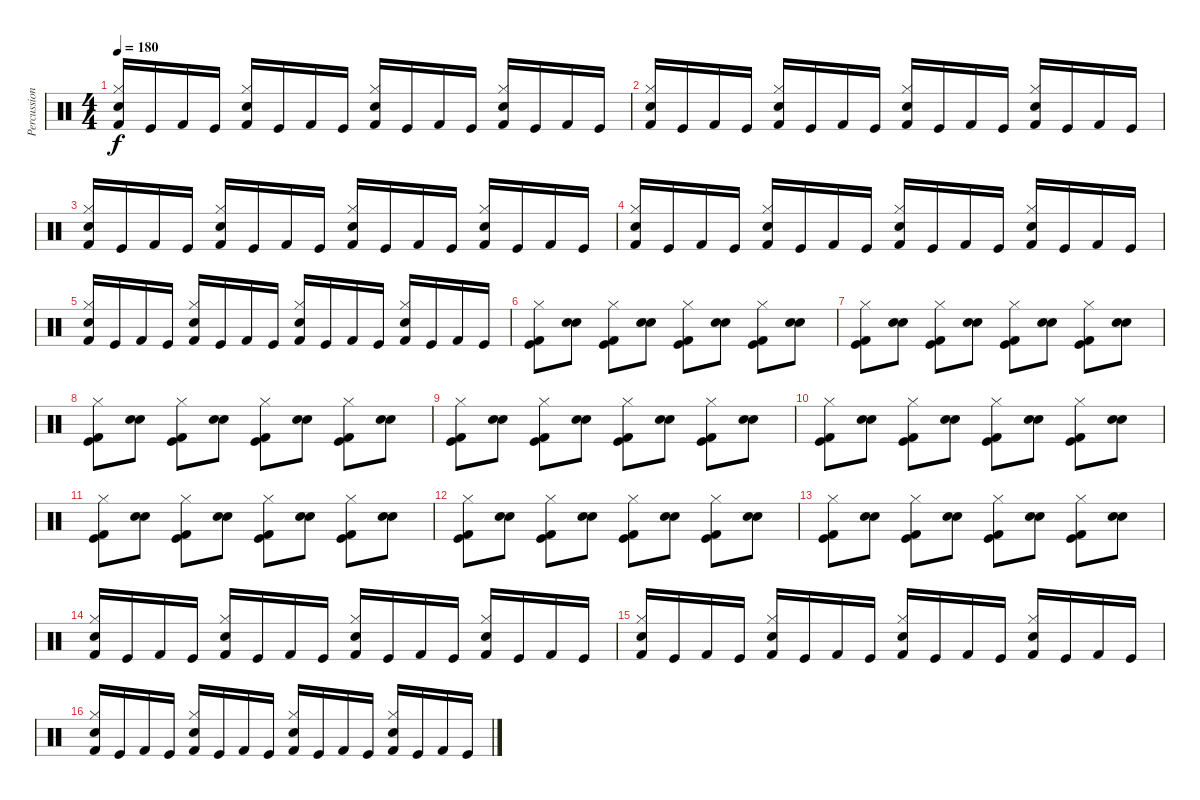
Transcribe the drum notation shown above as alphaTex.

\track ("Percussion" "Percussion") {instrument percussion}
\staff {score}
\articulation defaults
\ts (4 4)
\tempo 180
\clef neutral
\ks c
("Electric Snare (hit)" "Hi-Hat (closed)" "Kick (hit) 2").16{dy f} "Kick (hit)".16 "Kick (hit) 2".16 "Kick (hit)".16 ("Hi-Hat (closed)" "Electric Snare (hit)" "Kick (hit) 2").16 "Kick (hit)".16 "Kick (hit) 2".16 "Kick (hit)".16 ("Hi-Hat (closed)" "Electric Snare (hit)" "Kick (hit) 2").16 "Kick (hit)".16 "Kick (hit) 2".16 "Kick (hit)".16 ("Hi-Hat (closed)" "Electric Snare (hit)" "Kick (hit) 2").16 "Kick (hit)".16 "Kick (hit) 2".16 "Kick (hit)".16 |
("Electric Snare (hit)" "Hi-Hat (closed)" "Kick (hit) 2").16 "Kick (hit)".16 "Kick (hit) 2".16 "Kick (hit)".16 ("Hi-Hat (closed)" "Electric Snare (hit)" "Kick (hit) 2").16 "Kick (hit)".16 "Kick (hit) 2".16 "Kick (hit)".16 ("Hi-Hat (closed)" "Electric Snare (hit)" "Kick (hit) 2").16 "Kick (hit)".16 "Kick (hit) 2".16 "Kick (hit)".16 ("Hi-Hat (closed)" "Electric Snare (hit)" "Kick (hit) 2").16 "Kick (hit)".16 "Kick (hit) 2".16 "Kick (hit)".16 |
("Electric Snare (hit)" "Hi-Hat (closed)" "Kick (hit) 2").16 "Kick (hit)".16 "Kick (hit) 2".16 "Kick (hit)".16 ("Hi-Hat (closed)" "Electric Snare (hit)" "Kick (hit) 2").16 "Kick (hit)".16 "Kick (hit) 2".16 "Kick (hit)".16 ("Hi-Hat (closed)" "Electric Snare (hit)" "Kick (hit) 2").16 "Kick (hit)".16 "Kick (hit) 2".16 "Kick (hit)".16 ("Hi-Hat (closed)" "Electric Snare (hit)" "Kick (hit) 2").16 "Kick (hit)".16 "Kick (hit) 2".16 "Kick (hit)".16 |
("Electric Snare (hit)" "Hi-Hat (closed)" "Kick (hit) 2").16 "Kick (hit)".16 "Kick (hit) 2".16 "Kick (hit)".16 ("Hi-Hat (closed)" "Electric Snare (hit)" "Kick (hit) 2").16 "Kick (hit)".16 "Kick (hit) 2".16 "Kick (hit)".16 ("Hi-Hat (closed)" "Electric Snare (hit)" "Kick (hit) 2").16 "Kick (hit)".16 "Kick (hit) 2".16 "Kick (hit)".16 ("Hi-Hat (closed)" "Electric Snare (hit)" "Kick (hit) 2").16 "Kick (hit)".16 "Kick (hit) 2".16 "Kick (hit)".16 |
("Electric Snare (hit)" "Hi-Hat (closed)" "Kick (hit) 2").16 "Kick (hit)".16 "Kick (hit) 2".16 "Kick (hit)".16 ("Hi-Hat (closed)" "Electric Snare (hit)" "Kick (hit) 2").16 "Kick (hit)".16 "Kick (hit) 2".16 "Kick (hit)".16 ("Hi-Hat (closed)" "Electric Snare (hit)" "Kick (hit) 2").16 "Kick (hit)".16 "Kick (hit) 2".16 "Kick (hit)".16 ("Hi-Hat (closed)" "Electric Snare (hit)" "Kick (hit) 2").16 "Kick (hit)".16 "Kick (hit) 2".16 "Kick (hit)".16 |
("Hi-Hat (closed)" "Kick (hit)" "Kick (hit) 2").8 ("Electric Snare (hit)" "Electric Snare (hit)").8 ("Hi-Hat (closed)" "Kick (hit)" "Kick (hit) 2").8 ("Electric Snare (hit)" "Electric Snare (hit)").8 ("Hi-Hat (closed)" "Kick (hit)" "Kick (hit) 2").8 ("Electric Snare (hit)" "Electric Snare (hit)").8 ("Hi-Hat (closed)" "Kick (hit)" "Kick (hit) 2").8 ("Electric Snare (hit)" "Electric Snare (hit)").8 |
("Hi-Hat (closed)" "Kick (hit)" "Kick (hit) 2").8 ("Electric Snare (hit)" "Electric Snare (hit)").8 ("Hi-Hat (closed)" "Kick (hit)" "Kick (hit) 2").8 ("Electric Snare (hit)" "Electric Snare (hit)").8 ("Hi-Hat (closed)" "Kick (hit)" "Kick (hit) 2").8 ("Electric Snare (hit)" "Electric Snare (hit)").8 ("Hi-Hat (closed)" "Kick (hit)" "Kick (hit) 2").8 ("Electric Snare (hit)" "Electric Snare (hit)").8 |
("Hi-Hat (closed)" "Kick (hit)" "Kick (hit) 2").8 ("Electric Snare (hit)" "Electric Snare (hit)").8 ("Hi-Hat (closed)" "Kick (hit)" "Kick (hit) 2").8 ("Electric Snare (hit)" "Electric Snare (hit)").8 ("Hi-Hat (closed)" "Kick (hit)" "Kick (hit) 2").8 ("Electric Snare (hit)" "Electric Snare (hit)").8 ("Hi-Hat (closed)" "Kick (hit)" "Kick (hit) 2").8 ("Electric Snare (hit)" "Electric Snare (hit)").8 |
("Hi-Hat (closed)" "Kick (hit)" "Kick (hit) 2").8 ("Electric Snare (hit)" "Electric Snare (hit)").8 ("Hi-Hat (closed)" "Kick (hit)" "Kick (hit) 2").8 ("Electric Snare (hit)" "Electric Snare (hit)").8 ("Hi-Hat (closed)" "Kick (hit)" "Kick (hit) 2").8 ("Electric Snare (hit)" "Electric Snare (hit)").8 ("Hi-Hat (closed)" "Kick (hit)" "Kick (hit) 2").8 ("Electric Snare (hit)" "Electric Snare (hit)").8 |
("Hi-Hat (closed)" "Kick (hit)" "Kick (hit) 2").8 ("Electric Snare (hit)" "Electric Snare (hit)").8 ("Hi-Hat (closed)" "Kick (hit)" "Kick (hit) 2").8 ("Electric Snare (hit)" "Electric Snare (hit)").8 ("Hi-Hat (closed)" "Kick (hit)" "Kick (hit) 2").8 ("Electric Snare (hit)" "Electric Snare (hit)").8 ("Hi-Hat (closed)" "Kick (hit)" "Kick (hit) 2").8 ("Electric Snare (hit)" "Electric Snare (hit)").8 |
("Hi-Hat (closed)" "Kick (hit)" "Kick (hit) 2").8 ("Electric Snare (hit)" "Electric Snare (hit)").8 ("Hi-Hat (closed)" "Kick (hit)" "Kick (hit) 2").8 ("Electric Snare (hit)" "Electric Snare (hit)").8 ("Hi-Hat (closed)" "Kick (hit)" "Kick (hit) 2").8 ("Electric Snare (hit)" "Electric Snare (hit)").8 ("Hi-Hat (closed)" "Kick (hit)" "Kick (hit) 2").8 ("Electric Snare (hit)" "Electric Snare (hit)").8 |
("Hi-Hat (closed)" "Kick (hit)" "Kick (hit) 2").8 ("Electric Snare (hit)" "Electric Snare (hit)").8 ("Hi-Hat (closed)" "Kick (hit)" "Kick (hit) 2").8 ("Electric Snare (hit)" "Electric Snare (hit)").8 ("Hi-Hat (closed)" "Kick (hit)" "Kick (hit) 2").8 ("Electric Snare (hit)" "Electric Snare (hit)").8 ("Hi-Hat (closed)" "Kick (hit)" "Kick (hit) 2").8 ("Electric Snare (hit)" "Electric Snare (hit)").8 |
("Hi-Hat (closed)" "Kick (hit)" "Kick (hit) 2").8 ("Electric Snare (hit)" "Electric Snare (hit)").8 ("Hi-Hat (closed)" "Kick (hit)" "Kick (hit) 2").8 ("Electric Snare (hit)" "Electric Snare (hit)").8 ("Hi-Hat (closed)" "Kick (hit)" "Kick (hit) 2").8 ("Electric Snare (hit)" "Electric Snare (hit)").8 ("Hi-Hat (closed)" "Kick (hit)" "Kick (hit) 2").8 ("Electric Snare (hit)" "Electric Snare (hit)").8 |
("Electric Snare (hit)" "Hi-Hat (closed)" "Kick (hit) 2").16 "Kick (hit)".16 "Kick (hit) 2".16 "Kick (hit)".16 ("Hi-Hat (closed)" "Electric Snare (hit)" "Kick (hit) 2").16 "Kick (hit)".16 "Kick (hit) 2".16 "Kick (hit)".16 ("Hi-Hat (closed)" "Electric Snare (hit)" "Kick (hit) 2").16 "Kick (hit)".16 "Kick (hit) 2".16 "Kick (hit)".16 ("Hi-Hat (closed)" "Electric Snare (hit)" "Kick (hit) 2").16 "Kick (hit)".16 "Kick (hit) 2".16 "Kick (hit)".16 |
("Electric Snare (hit)" "Hi-Hat (closed)" "Kick (hit) 2").16 "Kick (hit)".16 "Kick (hit) 2".16 "Kick (hit)".16 ("Hi-Hat (closed)" "Electric Snare (hit)" "Kick (hit) 2").16 "Kick (hit)".16 "Kick (hit) 2".16 "Kick (hit)".16 ("Hi-Hat (closed)" "Electric Snare (hit)" "Kick (hit) 2").16 "Kick (hit)".16 "Kick (hit) 2".16 "Kick (hit)".16 ("Hi-Hat (closed)" "Electric Snare (hit)" "Kick (hit) 2").16 "Kick (hit)".16 "Kick (hit) 2".16 "Kick (hit)".16 |
("Electric Snare (hit)" "Hi-Hat (closed)" "Kick (hit) 2").16 "Kick (hit)".16 "Kick (hit) 2".16 "Kick (hit)".16 ("Hi-Hat (closed)" "Electric Snare (hit)" "Kick (hit) 2").16 "Kick (hit)".16 "Kick (hit) 2".16 "Kick (hit)".16 ("Hi-Hat (closed)" "Electric Snare (hit)" "Kick (hit) 2").16 "Kick (hit)".16 "Kick (hit) 2".16 "Kick (hit)".16 ("Hi-Hat (closed)" "Electric Snare (hit)" "Kick (hit) 2").16 "Kick (hit)".16 "Kick (hit) 2".16 "Kick (hit)".16
